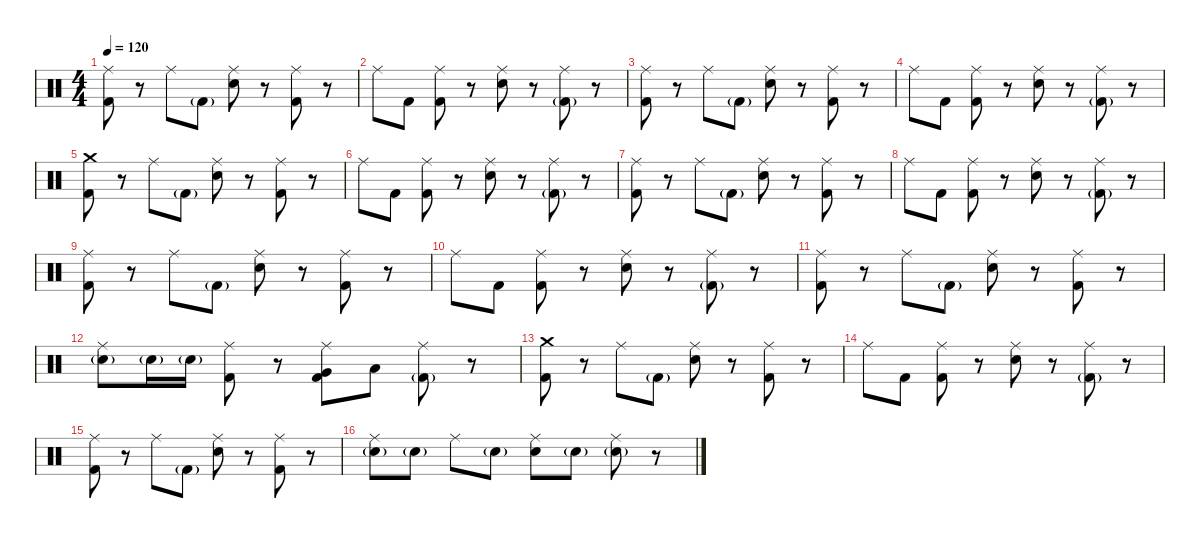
\defaultSystemsLayout 4
\hideDynamics
\bracketExtendMode nobrackets
\singleTrackTrackNamePolicy hidden
\multiTrackTrackNamePolicy hidden
\firstSystemTrackNameMode fullname
\firstSystemTrackNameOrientation horizontal
\otherSystemsTrackNameOrientation horizontal
\track ("Martin Axenrot - Drums" "drm.") {instrument percussion}
\staff {score}
\articulation defaults
\ts (4 4)
\tempo 120
\clef neutral
\ks c
("Ride (middle)" "Kick (hit) 2").8{dy f beam Down} r.8{beam Down} "Ride (middle)".8{dy mf beam Down} "Kick (hit) 2"{g}.8{beam Down} ("Ride (middle)" "Snare (hit) 2").8{dy f beam Down} r.8{beam Down} ("Ride (middle)" "Kick (hit) 2").8{dy mf beam Down} r.8{beam Down} |
"Ride (middle)".8{dy f beam Down} "Kick (hit) 2".8{dy mf beam Down} ("Ride (middle)" "Kick (hit) 2").8{beam Down} r.8{beam Down} ("Ride (middle)" "Snare (hit) 2").8{dy f beam Down} r.8{beam Down} ("Ride (middle)" "Kick (hit) 2"{g}).8{dy mf beam Down} r.8{beam Down} |
("Ride (middle)" "Kick (hit) 2").8{dy f beam Down} r.8{beam Down} "Ride (middle)".8{dy mf beam Down} "Kick (hit) 2"{g}.8{beam Down} ("Ride (middle)" "Snare (hit) 2").8{dy f beam Down} r.8{beam Down} ("Ride (middle)" "Kick (hit) 2").8{dy mf beam Down} r.8{beam Down} |
"Ride (middle)".8{dy f beam Down} "Kick (hit) 2".8{dy mf beam Down} ("Ride (middle)" "Kick (hit) 2").8{beam Down} r.8{beam Down} ("Ride (middle)" "Snare (hit) 2").8{dy f beam Down} r.8{beam Down} ("Ride (middle)" "Kick (hit) 2"{g}).8{dy mf beam Down} r.8{beam Down} |
("Crash medium (hit)" "Kick (hit) 2").8{dy f beam Down} r.8{beam Down} "Ride (middle)".8{dy mf beam Down} "Kick (hit) 2"{g}.8{beam Down} ("Ride (middle)" "Snare (hit) 2").8{dy f beam Down} r.8{beam Down} ("Ride (middle)" "Kick (hit) 2").8{dy mf beam Down} r.8{beam Down} |
"Ride (middle)".8{dy f beam Down} "Kick (hit) 2".8{dy mf beam Down} ("Ride (middle)" "Kick (hit) 2").8{beam Down} r.8{beam Down} ("Ride (middle)" "Snare (hit) 2").8{dy f beam Down} r.8{beam Down} ("Ride (middle)" "Kick (hit) 2"{g}).8{dy mf beam Down} r.8{beam Down} |
("Ride (middle)" "Kick (hit) 2").8{dy f beam Down} r.8{beam Down} "Ride (middle)".8{dy mf beam Down} "Kick (hit) 2"{g}.8{beam Down} ("Ride (middle)" "Snare (hit) 2").8{dy f beam Down} r.8{beam Down} ("Ride (middle)" "Kick (hit) 2").8{dy mf beam Down} r.8{beam Down} |
"Ride (middle)".8{dy f beam Down} "Kick (hit) 2".8{dy mf beam Down} ("Ride (middle)" "Kick (hit) 2").8{beam Down} r.8{beam Down} ("Ride (middle)" "Snare (hit) 2").8{dy f beam Down} r.8{beam Down} ("Ride (middle)" "Kick (hit) 2"{g}).8{dy mf beam Down} r.8{beam Down} |
("Ride (middle)" "Kick (hit) 2").8{dy f beam Down} r.8{beam Down} "Ride (middle)".8{dy mf beam Down} "Kick (hit) 2"{g}.8{beam Down} ("Ride (middle)" "Snare (hit) 2").8{dy f beam Down} r.8{beam Down} ("Ride (middle)" "Kick (hit) 2").8{dy mf beam Down} r.8{beam Down} |
"Ride (middle)".8{dy f beam Down} "Kick (hit) 2".8{dy mf beam Down} ("Ride (middle)" "Kick (hit) 2").8{beam Down} r.8{beam Down} ("Ride (middle)" "Snare (hit) 2").8{dy f beam Down} r.8{beam Down} ("Ride (middle)" "Kick (hit) 2"{g}).8{dy mf beam Down} r.8{beam Down} |
("Ride (middle)" "Kick (hit) 2").8{dy f beam Down} r.8{beam Down} "Ride (middle)".8{dy mf beam Down} "Kick (hit) 2"{g}.8{beam Down} ("Ride (middle)" "Snare (hit) 2").8{dy f beam Down} r.8{beam Down} ("Ride (middle)" "Kick (hit) 2").8{dy mf beam Down} r.8{beam Down} |
("Ride (middle)" "Snare (hit) 2"{g}).8{dy f beam Down} "Snare (hit) 2"{g}.16{dy mf beam Down} "Snare (hit) 2"{g}.16{beam Down} ("Ride (middle)" "Kick (hit) 2").8{beam Down} r.8{beam Down} ("Ride (middle)" "Very Low Tom (hit)" "Kick (hit) 2").8{dy f beam Down} "Low Floor Tom (hit)".8{beam Down} ("Ride (middle)" "Kick (hit) 2"{g}).8{dy mf beam Down} r.8{beam Down} |
("Crash medium (hit)" "Kick (hit) 2").8{dy f beam Down} r.8{beam Down} "Ride (middle)".8{dy mf beam Down} "Kick (hit) 2"{g}.8{beam Down} ("Ride (middle)" "Snare (hit) 2").8{dy f beam Down} r.8{beam Down} ("Ride (middle)" "Kick (hit) 2").8{dy mf beam Down} r.8{beam Down} |
"Ride (middle)".8{dy f beam Down} "Kick (hit) 2".8{dy mf beam Down} ("Ride (middle)" "Kick (hit) 2").8{beam Down} r.8{beam Down} ("Ride (middle)" "Snare (hit) 2").8{dy f beam Down} r.8{beam Down} ("Ride (middle)" "Kick (hit) 2"{g}).8{dy mf beam Down} r.8{beam Down} |
("Ride (middle)" "Kick (hit) 2").8{dy f beam Down} r.8{beam Down} "Ride (middle)".8{dy mf beam Down} "Kick (hit) 2"{g}.8{beam Down} ("Ride (middle)" "Snare (hit) 2").8{dy f beam Down} r.8{beam Down} ("Ride (middle)" "Kick (hit) 2").8{dy mf beam Down} r.8{beam Down} |
("Ride (middle)" "Snare (hit) 2"{g}).8{dy f beam Down} "Snare (hit) 2"{g}.8{dy mf beam Down} "Ride (middle)".8{beam Down} "Snare (hit) 2"{g}.8{beam Down} ("Ride (middle)" "Snare (hit) 2").8{dy f beam Down} "Snare (hit) 2"{g}.8{dy mf beam Down} ("Ride (middle)" "Snare (hit) 2"{g}).8{beam Down} r.8{beam Down}
